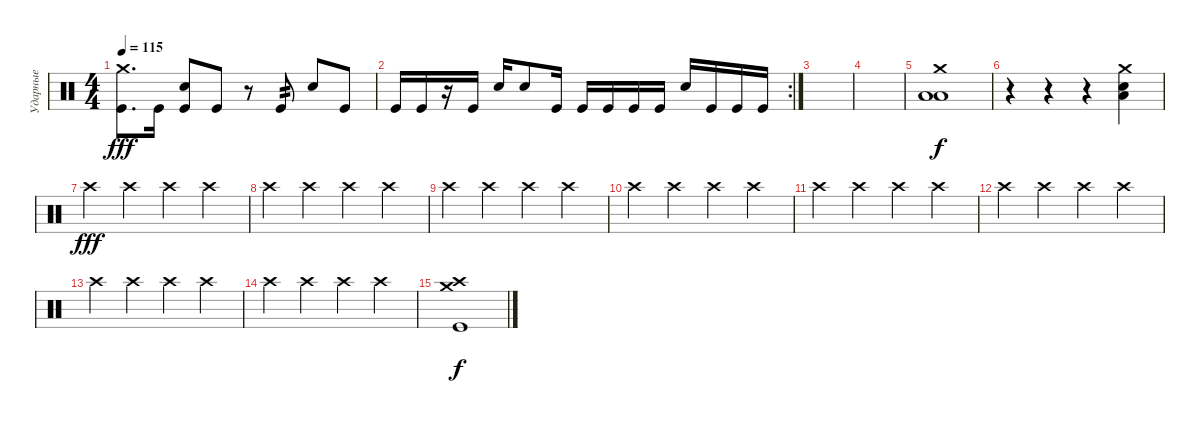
\track ("Ударные" "Ударные") {instrument percussion}
\staff {score}
\articulation defaults
\ts (4 4)
\tempo 115
\clef neutral
\ks c
("Crash medium (hit)" "Kick (hit)").8{d dy fff} "Kick (hit)".16 ("Electric Snare (hit)" "Kick (hit)").8 "Kick (hit)".8 r.8 "Kick (hit)".8{tp 2} "Electric Snare (hit)".8 "Kick (hit)".8 |
\rc 2 "Kick (hit)".16 "Kick (hit)".16
r.16 "Kick (hit)".16 "Electric Snare (hit)".16 "Electric Snare (hit)".8 "Kick (hit)".16 "Kick (hit)".16 "Kick (hit)".16 "Kick (hit)".16 "Kick (hit)".16 "Electric Snare (hit)".16 "Kick (hit)".16 "Kick (hit)".16 "Kick (hit)".16 |
|
|
("Crash medium (hit)" "Low Floor Tom (hit)" "Low Floor Tom (hit)").1{dy f} |
r.4 r.4 r.4 ("Crash medium (hit)" "Electric Snare (hit)" "Low Floor Tom (hit)").4 |
"Crash high (hit)".4{dy fff} "Crash high (hit)".4 "Crash high (hit)".4 "Crash high (hit)".4 |
"Crash high (hit)".4 "Crash high (hit)".4 "Crash high (hit)".4 "Crash high (hit)".4 |
"Crash high (hit)".4 "Crash high (hit)".4 "Crash high (hit)".4 "Crash high (hit)".4 |
"Crash high (hit)".4 "Crash high (hit)".4 "Crash high (hit)".4 "Crash high (hit)".4 |
"Crash high (hit)".4 "Crash high (hit)".4 "Crash high (hit)".4 "Crash high (hit)".4 |
"Crash high (hit)".4 "Crash high (hit)".4 "Crash high (hit)".4 "Crash high (hit)".4 |
"Crash high (hit)".4 "Crash high (hit)".4 "Crash high (hit)".4 "Crash high (hit)".4 |
"Crash high (hit)".4 "Crash high (hit)".4 "Crash high (hit)".4 "Crash high (hit)".4 |
("Crash high (hit)" "Crash medium (hit)" "Kick (hit)").1{dy f}
